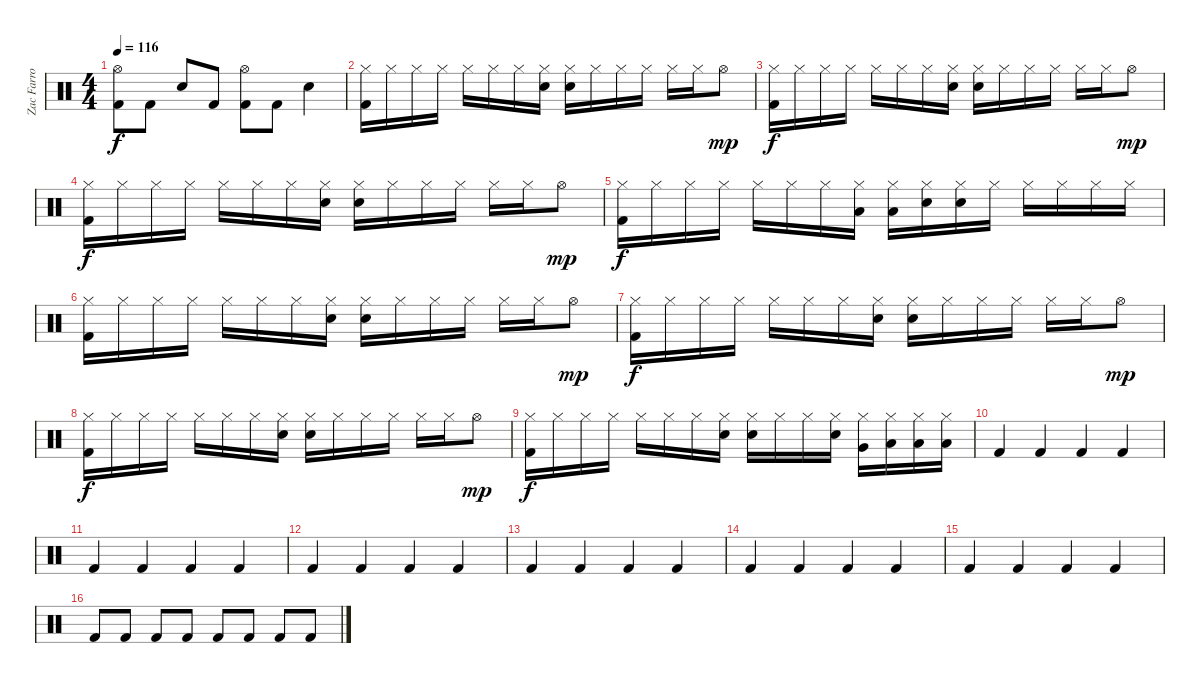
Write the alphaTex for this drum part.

\track ("Zac Farro" "Zac Farro") {instrument percussion}
\staff {score}
\articulation defaults
\ts (4 4)
\tempo 116
\clef neutral
\ks c
("Hi-Hat (open)" "Kick (hit) 2").8{dy f} "Kick (hit) 2".8 "Electric Snare (hit)".8 "Kick (hit) 2".8 ("Hi-Hat (open)" "Kick (hit) 2").8 "Kick (hit) 2".8 "Electric Snare (hit)".4 |
("Hi-Hat (closed)" "Kick (hit) 2").16 "Hi-Hat (closed)".16 "Hi-Hat (closed)".16 "Hi-Hat (closed)".16 "Hi-Hat (closed)".16 "Hi-Hat (closed)".16 "Hi-Hat (closed)".16 ("Hi-Hat (closed)" "Electric Snare (hit)").16 ("Hi-Hat (closed)" "Electric Snare (hit)").16 "Hi-Hat (closed)".16 "Hi-Hat (closed)".16 "Hi-Hat (closed)".16 "Hi-Hat (closed)".16 "Hi-Hat (closed)".16 "Hi-Hat (open)".8{dy mp} |
("Hi-Hat (closed)" "Kick (hit) 2").16{dy f} "Hi-Hat (closed)".16 "Hi-Hat (closed)".16 "Hi-Hat (closed)".16 "Hi-Hat (closed)".16 "Hi-Hat (closed)".16 "Hi-Hat (closed)".16 ("Hi-Hat (closed)" "Electric Snare (hit)").16 ("Hi-Hat (closed)" "Electric Snare (hit)").16 "Hi-Hat (closed)".16 "Hi-Hat (closed)".16 "Hi-Hat (closed)".16 "Hi-Hat (closed)".16 "Hi-Hat (closed)".16 "Hi-Hat (open)".8{dy mp} |
("Hi-Hat (closed)" "Kick (hit) 2").16{dy f} "Hi-Hat (closed)".16 "Hi-Hat (closed)".16 "Hi-Hat (closed)".16 "Hi-Hat (closed)".16 "Hi-Hat (closed)".16 "Hi-Hat (closed)".16 ("Hi-Hat (closed)" "Electric Snare (hit)").16 ("Hi-Hat (closed)" "Electric Snare (hit)").16 "Hi-Hat (closed)".16 "Hi-Hat (closed)".16 "Hi-Hat (closed)".16 "Hi-Hat (closed)".16 "Hi-Hat (closed)".16 "Hi-Hat (open)".8{dy mp} |
("Hi-Hat (closed)" "Kick (hit) 2").16{dy f} "Hi-Hat (closed)".16 "Hi-Hat (closed)".16 "Hi-Hat (closed)".16 "Hi-Hat (closed)".16 "Hi-Hat (closed)".16 "Hi-Hat (closed)".16 ("Hi-Hat (closed)" "Low Floor Tom (hit)").16 ("Hi-Hat (closed)" "Low Floor Tom (hit)").16 ("Hi-Hat (closed)" "Electric Snare (hit)").16 ("Hi-Hat (closed)" "Electric Snare (hit)").16 "Hi-Hat (closed)".16 "Hi-Hat (closed)".16 "Hi-Hat (closed)".16 "Hi-Hat (closed)".16 "Hi-Hat (closed)".16 |
("Hi-Hat (closed)" "Kick (hit) 2").16 "Hi-Hat (closed)".16 "Hi-Hat (closed)".16 "Hi-Hat (closed)".16 "Hi-Hat (closed)".16 "Hi-Hat (closed)".16 "Hi-Hat (closed)".16 ("Hi-Hat (closed)" "Electric Snare (hit)").16 ("Hi-Hat (closed)" "Electric Snare (hit)").16 "Hi-Hat (closed)".16 "Hi-Hat (closed)".16 "Hi-Hat (closed)".16 "Hi-Hat (closed)".16 "Hi-Hat (closed)".16 "Hi-Hat (open)".8{dy mp} |
("Hi-Hat (closed)" "Kick (hit) 2").16{dy f} "Hi-Hat (closed)".16 "Hi-Hat (closed)".16 "Hi-Hat (closed)".16 "Hi-Hat (closed)".16 "Hi-Hat (closed)".16 "Hi-Hat (closed)".16 ("Hi-Hat (closed)" "Electric Snare (hit)").16 ("Hi-Hat (closed)" "Electric Snare (hit)").16 "Hi-Hat (closed)".16 "Hi-Hat (closed)".16 "Hi-Hat (closed)".16 "Hi-Hat (closed)".16 "Hi-Hat (closed)".16 "Hi-Hat (open)".8{dy mp} |
("Hi-Hat (closed)" "Kick (hit) 2").16{dy f} "Hi-Hat (closed)".16 "Hi-Hat (closed)".16 "Hi-Hat (closed)".16 "Hi-Hat (closed)".16 "Hi-Hat (closed)".16 "Hi-Hat (closed)".16 ("Hi-Hat (closed)" "Electric Snare (hit)").16 ("Hi-Hat (closed)" "Electric Snare (hit)").16 "Hi-Hat (closed)".16 "Hi-Hat (closed)".16 "Hi-Hat (closed)".16 "Hi-Hat (closed)".16 "Hi-Hat (closed)".16 "Hi-Hat (open)".8{dy mp} |
("Hi-Hat (closed)" "Kick (hit) 2").16{dy f} "Hi-Hat (closed)".16 "Hi-Hat (closed)".16 "Hi-Hat (closed)".16 "Hi-Hat (closed)".16 "Hi-Hat (closed)".16 "Hi-Hat (closed)".16 ("Hi-Hat (closed)" "Electric Snare (hit)").16 ("Hi-Hat (closed)" "Electric Snare (hit)").16 "Hi-Hat (closed)".16 "Hi-Hat (closed)".16 ("Hi-Hat (closed)" "Electric Snare (hit)").16 ("Hi-Hat (closed)" "Very Low Tom (hit)").16 ("Hi-Hat (closed)" "Low Floor Tom (hit)").16 ("Hi-Hat (closed)" "Low Floor Tom (hit)").16 ("Hi-Hat (closed)" "Low Floor Tom (hit)").16 |
"Kick (hit) 2".4 "Kick (hit) 2".4{volume 0} "Kick (hit) 2".4{volume 16} "Kick (hit) 2".4 |
"Kick (hit) 2".4 "Kick (hit) 2".4 "Kick (hit) 2".4 "Kick (hit) 2".4 |
"Kick (hit) 2".4 "Kick (hit) 2".4 "Kick (hit) 2".4 "Kick (hit) 2".4 |
"Kick (hit) 2".4 "Kick (hit) 2".4 "Kick (hit) 2".4 "Kick (hit) 2".4 |
"Kick (hit) 2".4 "Kick (hit) 2".4 "Kick (hit) 2".4 "Kick (hit) 2".4 |
"Kick (hit) 2".4 "Kick (hit) 2".4 "Kick (hit) 2".4 "Kick (hit) 2".4 |
"Kick (hit) 2".8 "Kick (hit) 2".8 "Kick (hit) 2".8 "Kick (hit) 2".8 "Kick (hit) 2".8 "Kick (hit) 2".8 "Kick (hit) 2".8 "Kick (hit) 2".8
